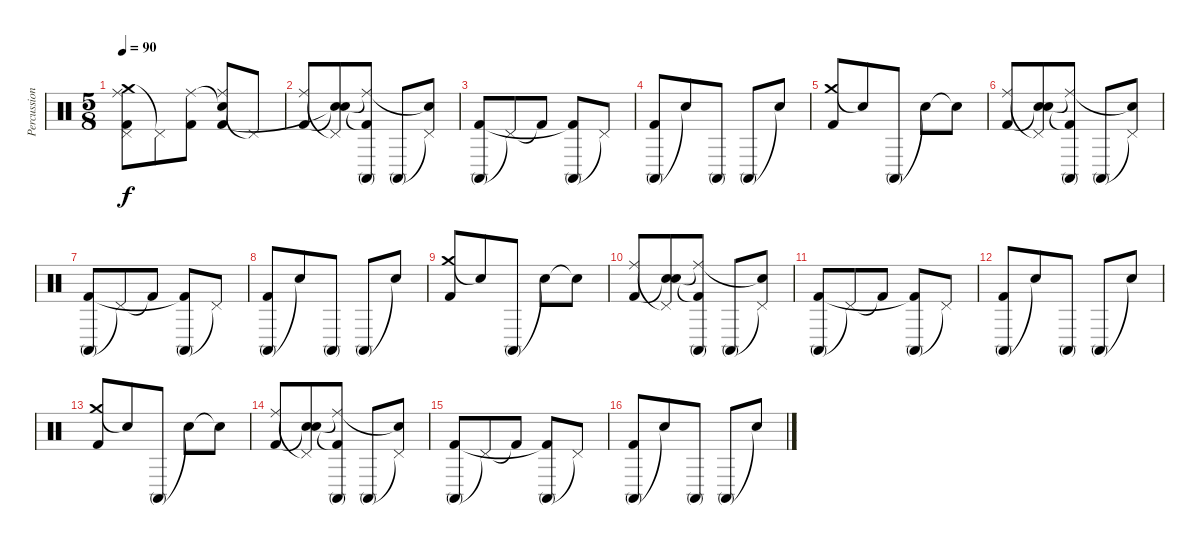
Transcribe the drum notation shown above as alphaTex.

\track ("Percussion" "Percussion") {instrument percussion}
\staff {score}
\articulation defaults
\ts (5 8)
\tempo 90
\clef neutral
\ks c
("Crash medium (hit)" "Pedal Hi-Hat (hit)"{t} "Ride (middle)" "Kick (hit) 2").8{dy f} "Pedal Hi-Hat (hit)"{t}.8 ("Ride (middle)" "Kick (hit) 2").8 ("Snare (hit)"{t} "Ride (middle)" "Kick (hit) 2").8 "Pedal Hi-Hat (hit)"{t}.8 |
("Ride (middle)" "Kick (hit) 2").8 ("Pedal Hi-Hat (hit)"{t} "Snare (hit)"{t} "Snare (hit)"{t}).8 ("Conga high (mute)" "Ride (middle)"{t} "Kick (hit) 2"{t}).8 "Conga high (mute)".8 ("Pedal Hi-Hat (hit)"{t} "Snare (hit)"{t}).8 |
("Conga high (mute)" "Kick (hit) 2").8 "Pedal Hi-Hat (hit)"{t}.8 "Kick (hit) 2"{t}.8 ("Conga high (mute)" "Kick (hit) 2"{t}).8 "Pedal Hi-Hat (hit)"{t}.8 |
("Conga high (mute)" "Kick (hit) 2").8 "Snare (hit)"{t}.8 "Conga high (mute)".8 "Conga high (mute)".8 "Snare (hit)"{t}.8 |
("Crash medium (hit)" "Kick (hit) 2").8 "Snare (hit)"{t}.8 "Conga high (mute)".8 "Snare (hit)"{t}.8 "Snare (hit)"{t}.8 |
("Ride (middle)" "Kick (hit) 2").8 ("Pedal Hi-Hat (hit)"{t} "Snare (hit)"{t} "Snare (hit)").8 ("Conga high (mute)" "Ride (middle)"{t} "Kick (hit) 2"{t}).8 "Conga high (mute)".8 ("Pedal Hi-Hat (hit)"{t} "Snare (hit)"{t}).8 |
("Conga high (mute)" "Kick (hit) 2").8 "Pedal Hi-Hat (hit)"{t}.8 "Kick (hit) 2"{t}.8 ("Conga high (mute)" "Kick (hit) 2"{t}).8 "Pedal Hi-Hat (hit)"{t}.8 |
("Conga high (mute)" "Kick (hit) 2").8 "Snare (hit)"{t}.8 "Conga high (mute)".8 "Conga high (mute)".8 "Snare (hit)"{t}.8 |
("Crash medium (hit)" "Kick (hit) 2").8 "Snare (hit)"{t}.8 "Conga high (mute)".8 "Snare (hit)"{t}.8 "Snare (hit)"{t}.8 |
("Ride (middle)" "Kick (hit) 2").8 ("Pedal Hi-Hat (hit)"{t} "Snare (hit)"{t} "Snare (hit)").8 ("Conga high (mute)" "Ride (middle)"{t} "Kick (hit) 2"{t}).8 "Conga high (mute)".8 ("Pedal Hi-Hat (hit)"{t} "Snare (hit)"{t}).8 |
("Conga high (mute)" "Kick (hit) 2").8 "Pedal Hi-Hat (hit)"{t}.8 "Kick (hit) 2"{t}.8 ("Conga high (mute)" "Kick (hit) 2"{t}).8 "Pedal Hi-Hat (hit)"{t}.8 |
("Conga high (mute)" "Kick (hit) 2").8 "Snare (hit)"{t}.8 "Conga high (mute)".8 "Conga high (mute)".8 "Snare (hit)"{t}.8 |
("Crash medium (hit)" "Kick (hit) 2").8 "Snare (hit)"{t}.8 "Conga high (mute)".8 "Snare (hit)"{t}.8 "Snare (hit)"{t}.8 |
("Ride (middle)" "Kick (hit) 2").8 ("Pedal Hi-Hat (hit)"{t} "Snare (hit)"{t} "Snare (hit)").8 ("Conga high (mute)" "Ride (middle)"{t} "Kick (hit) 2"{t}).8 "Conga high (mute)".8 ("Pedal Hi-Hat (hit)"{t} "Snare (hit)"{t}).8 |
("Conga high (mute)" "Kick (hit) 2").8 "Pedal Hi-Hat (hit)"{t}.8 "Kick (hit) 2"{t}.8 ("Conga high (mute)" "Kick (hit) 2"{t}).8 "Pedal Hi-Hat (hit)"{t}.8 |
("Conga high (mute)" "Kick (hit) 2").8 "Snare (hit)"{t}.8 "Conga high (mute)".8 "Conga high (mute)".8 "Snare (hit)"{t}.8
